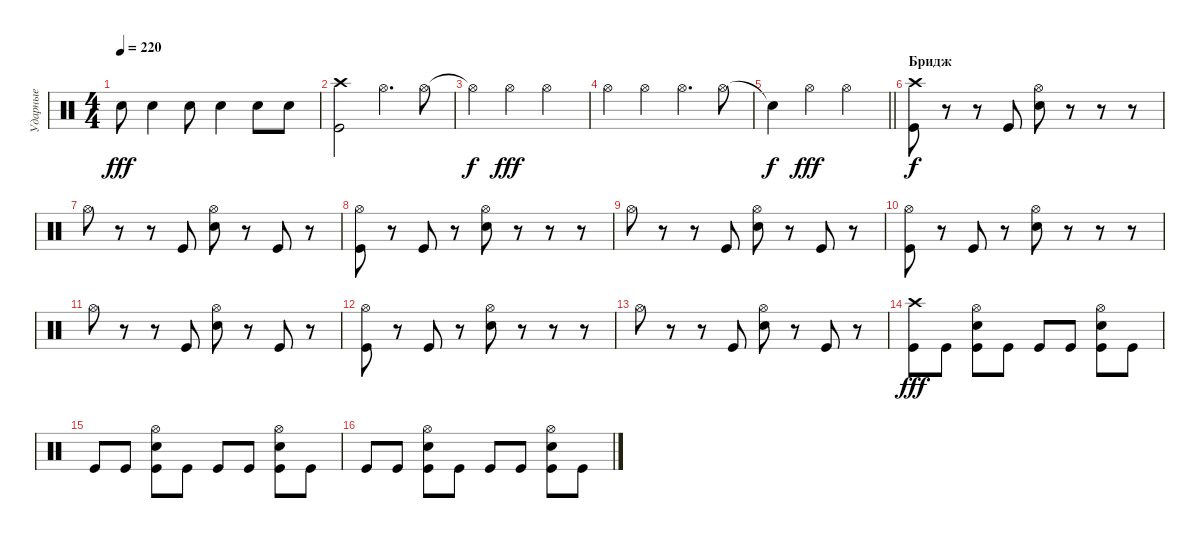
\track ("Ударные" "Ударные") {instrument percussion}
\staff {score}
\articulation defaults
\ts (4 4)
\tempo 220
\clef neutral
\ks c "Snare (hit) 2".8{dy fff} "Snare (hit) 2".4 "Snare (hit) 2".8 "Snare (hit) 2".4 "Snare (hit) 2".8 "Snare (hit) 2".8
|
("Crash high (hit)" "Kick (hit)").2 "Hi-Hat (open)".4{d} "Hi-Hat (open)".8 |
"Hi-Hat (open)"{t}.4{dy f} "Hi-Hat (open)".4{dy fff} "Hi-Hat (open)".2 |
"Hi-Hat (open)".4 "Hi-Hat (open)".4 "Hi-Hat (open)".4{d} "Hi-Hat (open)".8 |
\barLineRight lightlight "Snare (hit)"{t}.4{dy f} "Hi-Hat (open)".4{dy fff} "Hi-Hat (open)".2
|
\section ("" "Бридж")
("Crash high (hit)" "Kick (hit)").8{dy f} r.8 r.8 "Kick (hit)".8 ("Hi-Hat (open)" "Snare (hit) 2").8 r.8 r.8 r.8 |
"Hi-Hat (open)".8 r.8 r.8 "Kick (hit)".8 ("Hi-Hat (open)" "Snare (hit) 2").8 r.8 "Kick (hit)".8 r.8 |
("Hi-Hat (open)" "Kick (hit)").8 r.8 "Kick (hit)".8 r.8 ("Hi-Hat (open)" "Snare (hit) 2").8 r.8 r.8 r.8 |
"Hi-Hat (open)".8 r.8 r.8 "Kick (hit)".8 ("Hi-Hat (open)" "Snare (hit) 2").8 r.8 "Kick (hit)".8 r.8 |
("Hi-Hat (open)" "Kick (hit)").8 r.8 "Kick (hit)".8 r.8 ("Hi-Hat (open)" "Snare (hit) 2").8 r.8 r.8 r.8 |
"Hi-Hat (open)".8 r.8 r.8 "Kick (hit)".8 ("Hi-Hat (open)" "Snare (hit) 2").8 r.8 "Kick (hit)".8 r.8 |
("Hi-Hat (open)" "Kick (hit)").8 r.8 "Kick (hit)".8 r.8 ("Hi-Hat (open)" "Snare (hit) 2").8 r.8 r.8 r.8 |
"Hi-Hat (open)".8 r.8 r.8 "Kick (hit)".8 ("Hi-Hat (open)" "Snare (hit) 2").8 r.8 "Kick (hit)".8 r.8 |
("Crash high (hit)" "Kick (hit)").8{dy fff} "Kick (hit)".8 ("Hi-Hat (open)" "Snare (hit) 2" "Kick (hit)").8 "Kick (hit)".8 "Kick (hit)".8 "Kick (hit)".8 ("Hi-Hat (open)" "Snare (hit) 2" "Kick (hit)").8 "Kick (hit)".8 |
"Kick (hit)".8 "Kick (hit)".8 ("Hi-Hat (open)" "Snare (hit) 2" "Kick (hit)").8 "Kick (hit)".8 "Kick (hit)".8 "Kick (hit)".8 ("Hi-Hat (open)" "Snare (hit) 2" "Kick (hit)").8 "Kick (hit)".8 |
"Kick (hit)".8 "Kick (hit)".8 ("Hi-Hat (open)" "Snare (hit) 2" "Kick (hit)").8 "Kick (hit)".8 "Kick (hit)".8 "Kick (hit)".8 ("Hi-Hat (open)" "Snare (hit) 2" "Kick (hit)").8 "Kick (hit)".8
